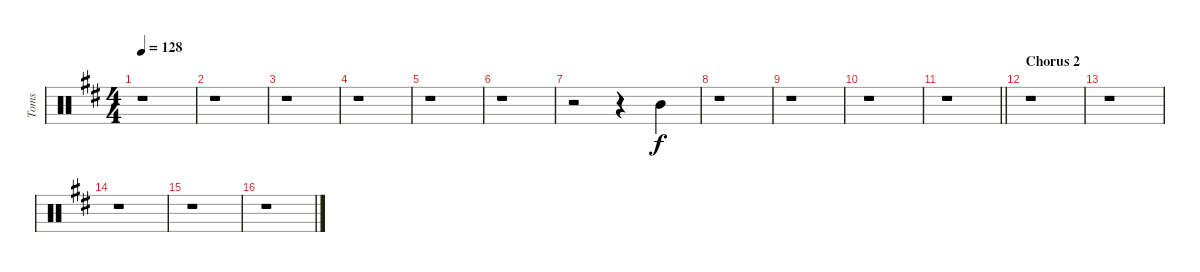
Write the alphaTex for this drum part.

\track ("Toms" "Toms") {instrument percussion}
\staff {score}
\articulation defaults
\ts (4 4)
\tempo 128
\clef neutral
\ks bminor
r.1{dy f} |
r.1 |
r.1 |
r.1 |
r.1 |
r.1 |
r.2 r.4 "Mid Tom (hit)".4 |
r.1 |
r.1 |
r.1 |
\barLineRight lightlight
r.1 |
\section ("" "Chorus 2")
r.1 |
r.1 |
r.1 |
r.1 |
r.1
